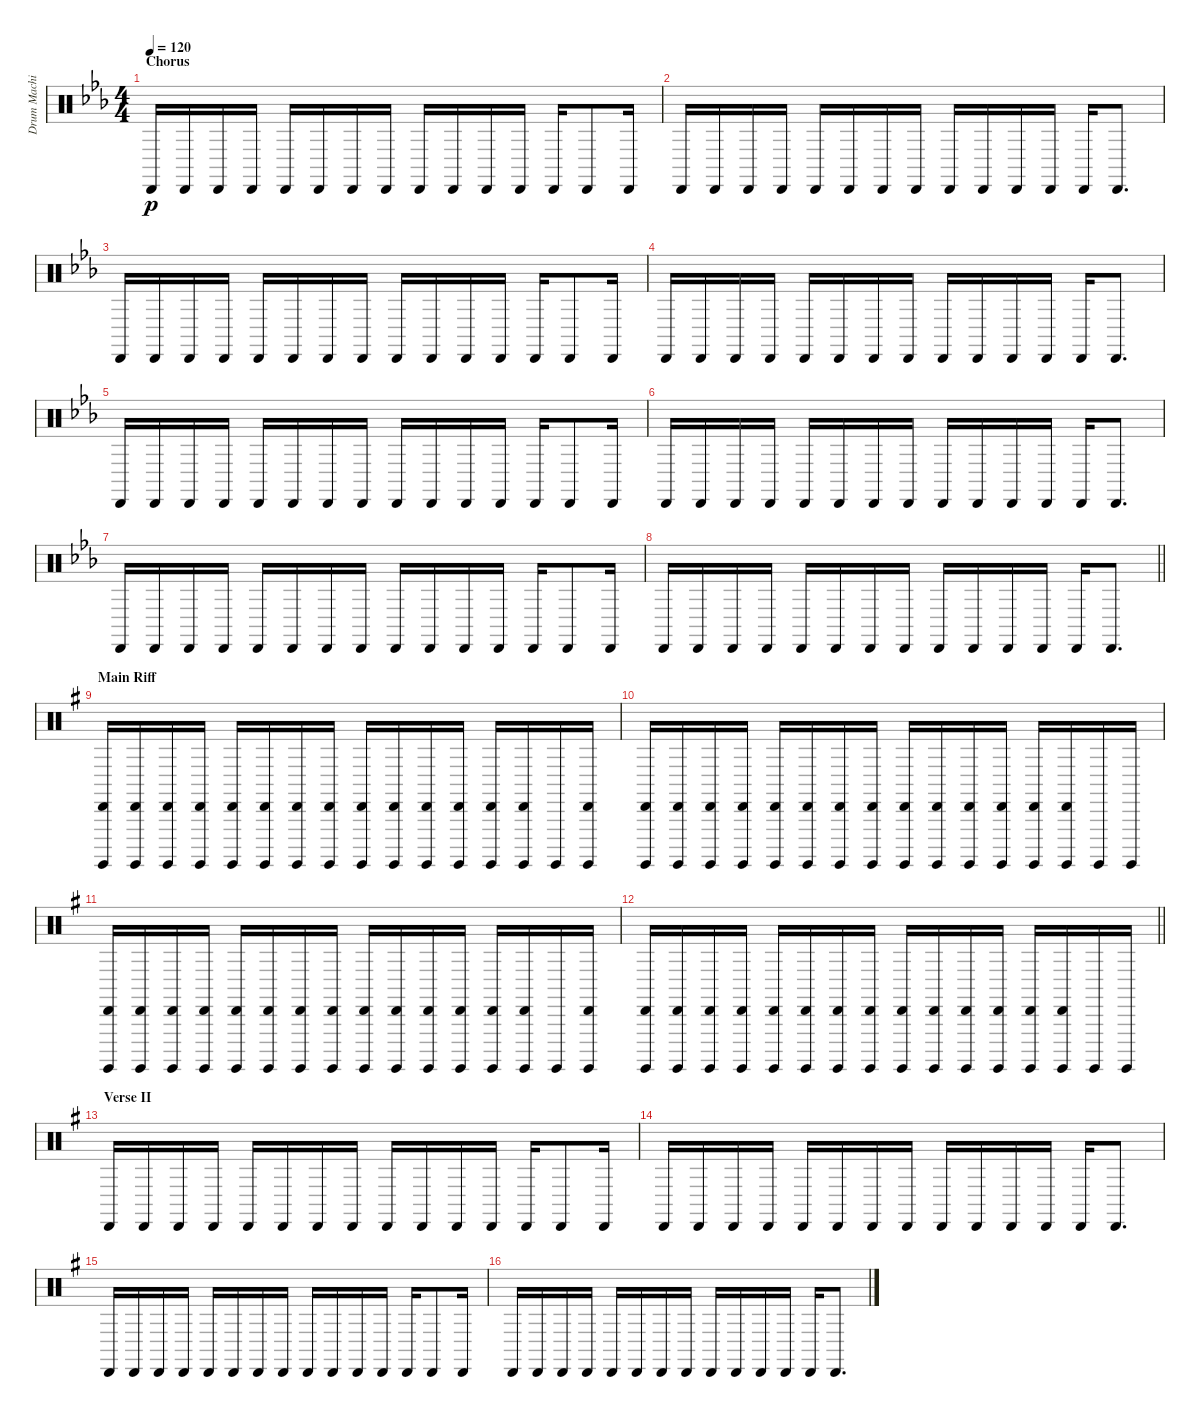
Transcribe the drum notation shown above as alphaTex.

\track ("Drum Machine" "Drum Machi") {instrument percussion}
\staff {score}
\articulation defaults
\ts (4 4)
\section ("" "Chorus")
\tempo 120
\clef neutral
\ks eb "Cabasa (hit)".16{dy p} "Cabasa (hit)".16 "Cabasa (hit)".16 "Cabasa (hit)".16 "Cabasa (hit)".16 "Cabasa (hit)".16 "Cabasa (hit)".16 "Cabasa (hit)".16 "Cabasa (hit)".16 "Cabasa (hit)".16 "Cabasa (hit)".16 "Cabasa (hit)".16 "Cabasa (hit)".16 "Cabasa (hit)".8 "Cabasa (hit)".16
|
"Cabasa (hit)".16 "Cabasa (hit)".16 "Cabasa (hit)".16 "Cabasa (hit)".16 "Cabasa (hit)".16 "Cabasa (hit)".16 "Cabasa (hit)".16 "Cabasa (hit)".16 "Cabasa (hit)".16 "Cabasa (hit)".16 "Cabasa (hit)".16 "Cabasa (hit)".16 "Cabasa (hit)".16 "Cabasa (hit)".8{d} |
"Cabasa (hit)".16 "Cabasa (hit)".16 "Cabasa (hit)".16 "Cabasa (hit)".16 "Cabasa (hit)".16 "Cabasa (hit)".16 "Cabasa (hit)".16 "Cabasa (hit)".16 "Cabasa (hit)".16 "Cabasa (hit)".16 "Cabasa (hit)".16 "Cabasa (hit)".16 "Cabasa (hit)".16 "Cabasa (hit)".8 "Cabasa (hit)".16 |
"Cabasa (hit)".16 "Cabasa (hit)".16 "Cabasa (hit)".16 "Cabasa (hit)".16 "Cabasa (hit)".16 "Cabasa (hit)".16 "Cabasa (hit)".16 "Cabasa (hit)".16 "Cabasa (hit)".16 "Cabasa (hit)".16 "Cabasa (hit)".16 "Cabasa (hit)".16 "Cabasa (hit)".16 "Cabasa (hit)".8{d} |
"Cabasa (hit)".16 "Cabasa (hit)".16 "Cabasa (hit)".16 "Cabasa (hit)".16 "Cabasa (hit)".16 "Cabasa (hit)".16 "Cabasa (hit)".16 "Cabasa (hit)".16 "Cabasa (hit)".16 "Cabasa (hit)".16 "Cabasa (hit)".16 "Cabasa (hit)".16 "Cabasa (hit)".16 "Cabasa (hit)".8 "Cabasa (hit)".16 |
"Cabasa (hit)".16 "Cabasa (hit)".16 "Cabasa (hit)".16 "Cabasa (hit)".16 "Cabasa (hit)".16 "Cabasa (hit)".16 "Cabasa (hit)".16 "Cabasa (hit)".16 "Cabasa (hit)".16 "Cabasa (hit)".16 "Cabasa (hit)".16 "Cabasa (hit)".16 "Cabasa (hit)".16 "Cabasa (hit)".8{d} |
"Cabasa (hit)".16 "Cabasa (hit)".16 "Cabasa (hit)".16 "Cabasa (hit)".16 "Cabasa (hit)".16 "Cabasa (hit)".16 "Cabasa (hit)".16 "Cabasa (hit)".16 "Cabasa (hit)".16 "Cabasa (hit)".16 "Cabasa (hit)".16 "Cabasa (hit)".16 "Cabasa (hit)".16 "Cabasa (hit)".8 "Cabasa (hit)".16 |
\barLineRight lightlight "Cabasa (hit)".16 "Cabasa (hit)".16 "Cabasa (hit)".16 "Cabasa (hit)".16 "Cabasa (hit)".16 "Cabasa (hit)".16 "Cabasa (hit)".16 "Cabasa (hit)".16 "Cabasa (hit)".16 "Cabasa (hit)".16 "Cabasa (hit)".16 "Cabasa (hit)".16 "Cabasa (hit)".16 "Cabasa (hit)".8{d}
|
\section ("" "Main Riff")
\ks g
("Cabasa (hit)" "Surdo (hit)").16 ("Cabasa (hit)" "Surdo (hit)").16 ("Cabasa (hit)" "Surdo (hit)").16 ("Cabasa (hit)" "Surdo (hit)").16 ("Cabasa (hit)" "Surdo (hit)").16 ("Cabasa (hit)" "Surdo (hit)").16 ("Cabasa (hit)" "Surdo (hit)").16 ("Cabasa (hit)" "Surdo (hit)").16 ("Cabasa (hit)" "Surdo (hit)").16 ("Cabasa (hit)" "Surdo (hit)").16 ("Cabasa (hit)" "Surdo (hit)").16 ("Cabasa (hit)" "Surdo (hit)").16 ("Cabasa (hit)" "Surdo (hit)").16 ("Cabasa (hit)" "Surdo (hit)").16 "Surdo (hit)".16 ("Cabasa (hit)" "Surdo (hit)").16 |
("Cabasa (hit)" "Surdo (hit)").16 ("Cabasa (hit)" "Surdo (hit)").16 ("Cabasa (hit)" "Surdo (hit)").16 ("Cabasa (hit)" "Surdo (hit)").16 ("Cabasa (hit)" "Surdo (hit)").16 ("Cabasa (hit)" "Surdo (hit)").16 ("Cabasa (hit)" "Surdo (hit)").16 ("Cabasa (hit)" "Surdo (hit)").16 ("Cabasa (hit)" "Surdo (hit)").16 ("Cabasa (hit)" "Surdo (hit)").16 ("Cabasa (hit)" "Surdo (hit)").16 ("Cabasa (hit)" "Surdo (hit)").16 ("Cabasa (hit)" "Surdo (hit)").16 ("Cabasa (hit)" "Surdo (hit)").16 "Surdo (hit)".16 "Surdo (hit)".16 |
("Cabasa (hit)" "Surdo (hit)").16 ("Cabasa (hit)" "Surdo (hit)").16 ("Cabasa (hit)" "Surdo (hit)").16 ("Cabasa (hit)" "Surdo (hit)").16 ("Cabasa (hit)" "Surdo (hit)").16 ("Cabasa (hit)" "Surdo (hit)").16 ("Cabasa (hit)" "Surdo (hit)").16 ("Cabasa (hit)" "Surdo (hit)").16 ("Cabasa (hit)" "Surdo (hit)").16 ("Cabasa (hit)" "Surdo (hit)").16 ("Cabasa (hit)" "Surdo (hit)").16 ("Cabasa (hit)" "Surdo (hit)").16 ("Cabasa (hit)" "Surdo (hit)").16 ("Cabasa (hit)" "Surdo (hit)").16 "Surdo (hit)".16 ("Cabasa (hit)" "Surdo (hit)").16 |
\barLineRight lightlight
("Cabasa (hit)" "Surdo (hit)").16 ("Cabasa (hit)" "Surdo (hit)").16 ("Cabasa (hit)" "Surdo (hit)").16 ("Cabasa (hit)" "Surdo (hit)").16 ("Cabasa (hit)" "Surdo (hit)").16 ("Cabasa (hit)" "Surdo (hit)").16 ("Cabasa (hit)" "Surdo (hit)").16 ("Cabasa (hit)" "Surdo (hit)").16 ("Cabasa (hit)" "Surdo (hit)").16 ("Cabasa (hit)" "Surdo (hit)").16 ("Cabasa (hit)" "Surdo (hit)").16 ("Cabasa (hit)" "Surdo (hit)").16 ("Cabasa (hit)" "Surdo (hit)").16 ("Cabasa (hit)" "Surdo (hit)").16 "Surdo (hit)".16 "Surdo (hit)".16 |
\section ("" "Verse II")
"Cabasa (hit)".16 "Cabasa (hit)".16 "Cabasa (hit)".16 "Cabasa (hit)".16 "Cabasa (hit)".16 "Cabasa (hit)".16 "Cabasa (hit)".16 "Cabasa (hit)".16 "Cabasa (hit)".16 "Cabasa (hit)".16 "Cabasa (hit)".16 "Cabasa (hit)".16 "Cabasa (hit)".16 "Cabasa (hit)".8 "Cabasa (hit)".16 |
"Cabasa (hit)".16 "Cabasa (hit)".16 "Cabasa (hit)".16 "Cabasa (hit)".16 "Cabasa (hit)".16 "Cabasa (hit)".16 "Cabasa (hit)".16 "Cabasa (hit)".16 "Cabasa (hit)".16 "Cabasa (hit)".16 "Cabasa (hit)".16 "Cabasa (hit)".16 "Cabasa (hit)".16 "Cabasa (hit)".8{d} |
"Cabasa (hit)".16 "Cabasa (hit)".16 "Cabasa (hit)".16 "Cabasa (hit)".16 "Cabasa (hit)".16 "Cabasa (hit)".16 "Cabasa (hit)".16 "Cabasa (hit)".16 "Cabasa (hit)".16 "Cabasa (hit)".16 "Cabasa (hit)".16 "Cabasa (hit)".16 "Cabasa (hit)".16 "Cabasa (hit)".8 "Cabasa (hit)".16 |
"Cabasa (hit)".16 "Cabasa (hit)".16 "Cabasa (hit)".16 "Cabasa (hit)".16 "Cabasa (hit)".16 "Cabasa (hit)".16 "Cabasa (hit)".16 "Cabasa (hit)".16 "Cabasa (hit)".16 "Cabasa (hit)".16 "Cabasa (hit)".16 "Cabasa (hit)".16 "Cabasa (hit)".16 "Cabasa (hit)".8{d}
